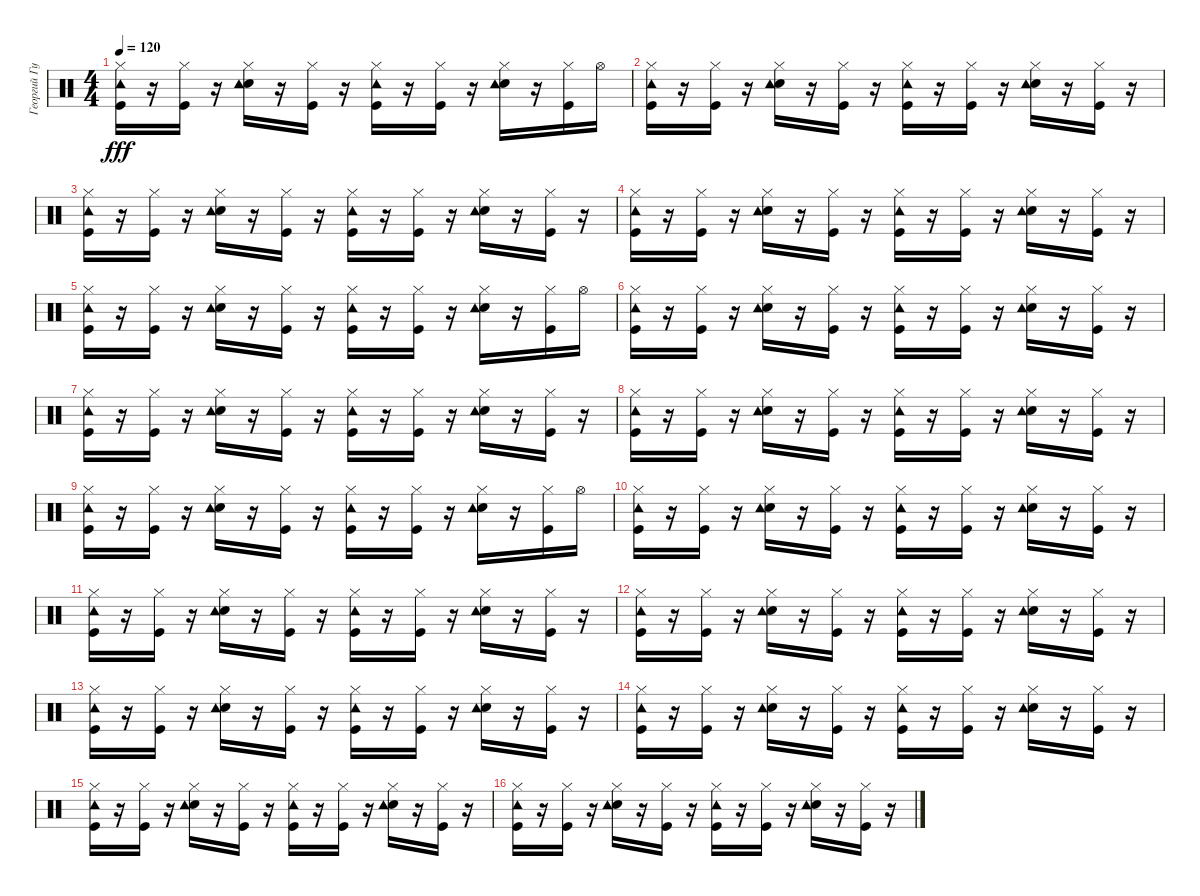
\track ("Георгий Гурьянов (ударные)" "Георгий Гу") {instrument percussion}
\staff {score}
\articulation defaults
\ts (4 4)
\tempo 120
\clef neutral
\ks c
("Kick (hit)" "Hi-Hat (closed)" "Tambourine (hit)").16{dy fff} r.16 ("Kick (hit)" "Hi-Hat (closed)").16 r.16 ("Snare (hit) 2" "Hi-Hat (closed)" "Tambourine (hit)").16 r.16 ("Kick (hit)" "Hi-Hat (closed)").16 r.16 ("Kick (hit)" "Hi-Hat (closed)" "Tambourine (hit)").16 r.16 ("Kick (hit)" "Hi-Hat (closed)").16 r.16 ("Snare (hit) 2" "Hi-Hat (closed)" "Tambourine (hit)").16 r.16 ("Kick (hit)" "Hi-Hat (closed)").16 "Hi-Hat (open)".16 |
("Kick (hit)" "Hi-Hat (closed)" "Tambourine (hit)").16 r.16 ("Kick (hit)" "Hi-Hat (closed)").16 r.16 ("Snare (hit) 2" "Hi-Hat (closed)" "Tambourine (hit)").16 r.16 ("Kick (hit)" "Hi-Hat (closed)").16 r.16 ("Kick (hit)" "Hi-Hat (closed)" "Tambourine (hit)").16 r.16 ("Kick (hit)" "Hi-Hat (closed)").16 r.16 ("Snare (hit) 2" "Hi-Hat (closed)" "Tambourine (hit)").16 r.16 ("Kick (hit)" "Hi-Hat (closed)").16 r.16 |
("Kick (hit)" "Hi-Hat (closed)" "Tambourine (hit)").16 r.16 ("Kick (hit)" "Hi-Hat (closed)").16 r.16 ("Snare (hit) 2" "Hi-Hat (closed)" "Tambourine (hit)").16 r.16 ("Kick (hit)" "Hi-Hat (closed)").16 r.16 ("Kick (hit)" "Hi-Hat (closed)" "Tambourine (hit)").16 r.16 ("Kick (hit)" "Hi-Hat (closed)").16 r.16 ("Snare (hit) 2" "Hi-Hat (closed)" "Tambourine (hit)").16 r.16 ("Kick (hit)" "Hi-Hat (closed)").16 r.16 |
("Kick (hit)" "Hi-Hat (closed)" "Tambourine (hit)").16 r.16 ("Kick (hit)" "Hi-Hat (closed)").16 r.16 ("Snare (hit) 2" "Hi-Hat (closed)" "Tambourine (hit)").16 r.16 ("Kick (hit)" "Hi-Hat (closed)").16 r.16 ("Kick (hit)" "Hi-Hat (closed)" "Tambourine (hit)").16 r.16 ("Kick (hit)" "Hi-Hat (closed)").16 r.16 ("Snare (hit) 2" "Hi-Hat (closed)" "Tambourine (hit)").16 r.16 ("Kick (hit)" "Hi-Hat (closed)").16 r.16 |
("Kick (hit)" "Hi-Hat (closed)" "Tambourine (hit)").16 r.16 ("Kick (hit)" "Hi-Hat (closed)").16 r.16 ("Snare (hit) 2" "Hi-Hat (closed)" "Tambourine (hit)").16 r.16 ("Kick (hit)" "Hi-Hat (closed)").16 r.16 ("Kick (hit)" "Hi-Hat (closed)" "Tambourine (hit)").16 r.16 ("Kick (hit)" "Hi-Hat (closed)").16 r.16 ("Snare (hit) 2" "Hi-Hat (closed)" "Tambourine (hit)").16 r.16 ("Kick (hit)" "Hi-Hat (closed)").16 "Hi-Hat (open)".16 |
("Kick (hit)" "Hi-Hat (closed)" "Tambourine (hit)").16 r.16 ("Kick (hit)" "Hi-Hat (closed)").16 r.16 ("Snare (hit) 2" "Hi-Hat (closed)" "Tambourine (hit)").16 r.16 ("Kick (hit)" "Hi-Hat (closed)").16 r.16 ("Kick (hit)" "Hi-Hat (closed)" "Tambourine (hit)").16 r.16 ("Kick (hit)" "Hi-Hat (closed)").16 r.16 ("Snare (hit) 2" "Hi-Hat (closed)" "Tambourine (hit)").16 r.16 ("Kick (hit)" "Hi-Hat (closed)").16 r.16 |
("Kick (hit)" "Hi-Hat (closed)" "Tambourine (hit)").16 r.16 ("Kick (hit)" "Hi-Hat (closed)").16 r.16 ("Snare (hit) 2" "Hi-Hat (closed)" "Tambourine (hit)").16 r.16 ("Kick (hit)" "Hi-Hat (closed)").16 r.16 ("Kick (hit)" "Hi-Hat (closed)" "Tambourine (hit)").16 r.16 ("Kick (hit)" "Hi-Hat (closed)").16 r.16 ("Snare (hit) 2" "Hi-Hat (closed)" "Tambourine (hit)").16 r.16 ("Kick (hit)" "Hi-Hat (closed)").16 r.16 |
("Kick (hit)" "Hi-Hat (closed)" "Tambourine (hit)").16 r.16 ("Kick (hit)" "Hi-Hat (closed)").16 r.16 ("Snare (hit) 2" "Hi-Hat (closed)" "Tambourine (hit)").16 r.16 ("Kick (hit)" "Hi-Hat (closed)").16 r.16 ("Kick (hit)" "Hi-Hat (closed)" "Tambourine (hit)").16 r.16 ("Kick (hit)" "Hi-Hat (closed)").16 r.16 ("Snare (hit) 2" "Hi-Hat (closed)" "Tambourine (hit)").16 r.16 ("Kick (hit)" "Hi-Hat (closed)").16 r.16 |
("Kick (hit)" "Hi-Hat (closed)" "Tambourine (hit)").16 r.16 ("Kick (hit)" "Hi-Hat (closed)").16 r.16 ("Snare (hit) 2" "Hi-Hat (closed)" "Tambourine (hit)").16 r.16 ("Kick (hit)" "Hi-Hat (closed)").16 r.16 ("Kick (hit)" "Hi-Hat (closed)" "Tambourine (hit)").16 r.16 ("Kick (hit)" "Hi-Hat (closed)").16 r.16 ("Snare (hit) 2" "Hi-Hat (closed)" "Tambourine (hit)").16 r.16 ("Kick (hit)" "Hi-Hat (closed)").16 "Hi-Hat (open)".16 |
("Kick (hit)" "Hi-Hat (closed)" "Tambourine (hit)").16 r.16 ("Kick (hit)" "Hi-Hat (closed)").16 r.16 ("Snare (hit) 2" "Hi-Hat (closed)" "Tambourine (hit)").16 r.16 ("Kick (hit)" "Hi-Hat (closed)").16 r.16 ("Kick (hit)" "Hi-Hat (closed)" "Tambourine (hit)").16 r.16 ("Kick (hit)" "Hi-Hat (closed)").16 r.16 ("Snare (hit) 2" "Hi-Hat (closed)" "Tambourine (hit)").16 r.16 ("Kick (hit)" "Hi-Hat (closed)").16 r.16 |
("Kick (hit)" "Hi-Hat (closed)" "Tambourine (hit)").16 r.16 ("Kick (hit)" "Hi-Hat (closed)").16 r.16 ("Snare (hit) 2" "Hi-Hat (closed)" "Tambourine (hit)").16 r.16 ("Kick (hit)" "Hi-Hat (closed)").16 r.16 ("Kick (hit)" "Hi-Hat (closed)" "Tambourine (hit)").16 r.16 ("Kick (hit)" "Hi-Hat (closed)").16 r.16 ("Snare (hit) 2" "Hi-Hat (closed)" "Tambourine (hit)").16 r.16 ("Kick (hit)" "Hi-Hat (closed)").16 r.16 |
("Kick (hit)" "Hi-Hat (closed)" "Tambourine (hit)").16 r.16 ("Kick (hit)" "Hi-Hat (closed)").16 r.16 ("Snare (hit) 2" "Hi-Hat (closed)" "Tambourine (hit)").16 r.16 ("Kick (hit)" "Hi-Hat (closed)").16 r.16 ("Kick (hit)" "Hi-Hat (closed)" "Tambourine (hit)").16 r.16 ("Kick (hit)" "Hi-Hat (closed)").16 r.16 ("Snare (hit) 2" "Hi-Hat (closed)" "Tambourine (hit)").16 r.16 ("Kick (hit)" "Hi-Hat (closed)").16 r.16 |
("Kick (hit)" "Hi-Hat (closed)" "Tambourine (hit)").16 r.16 ("Kick (hit)" "Hi-Hat (closed)").16 r.16 ("Snare (hit) 2" "Hi-Hat (closed)" "Tambourine (hit)").16 r.16 ("Kick (hit)" "Hi-Hat (closed)").16 r.16 ("Kick (hit)" "Hi-Hat (closed)" "Tambourine (hit)").16 r.16 ("Kick (hit)" "Hi-Hat (closed)").16 r.16 ("Snare (hit) 2" "Hi-Hat (closed)" "Tambourine (hit)").16 r.16 ("Kick (hit)" "Hi-Hat (closed)").16 r.16 |
("Kick (hit)" "Hi-Hat (closed)" "Tambourine (hit)").16 r.16 ("Kick (hit)" "Hi-Hat (closed)").16 r.16 ("Snare (hit) 2" "Hi-Hat (closed)" "Tambourine (hit)").16 r.16 ("Kick (hit)" "Hi-Hat (closed)").16 r.16 ("Kick (hit)" "Hi-Hat (closed)" "Tambourine (hit)").16 r.16 ("Kick (hit)" "Hi-Hat (closed)").16 r.16 ("Snare (hit) 2" "Hi-Hat (closed)" "Tambourine (hit)").16 r.16 ("Kick (hit)" "Hi-Hat (closed)").16 r.16 |
("Kick (hit)" "Hi-Hat (closed)" "Tambourine (hit)").16 r.16 ("Kick (hit)" "Hi-Hat (closed)").16 r.16 ("Snare (hit) 2" "Hi-Hat (closed)" "Tambourine (hit)").16 r.16 ("Kick (hit)" "Hi-Hat (closed)").16 r.16 ("Kick (hit)" "Hi-Hat (closed)" "Tambourine (hit)").16 r.16 ("Kick (hit)" "Hi-Hat (closed)").16 r.16 ("Snare (hit) 2" "Hi-Hat (closed)" "Tambourine (hit)").16 r.16 ("Kick (hit)" "Hi-Hat (closed)").16 r.16 |
("Kick (hit)" "Hi-Hat (closed)" "Tambourine (hit)").16 r.16 ("Kick (hit)" "Hi-Hat (closed)").16 r.16 ("Snare (hit) 2" "Hi-Hat (closed)" "Tambourine (hit)").16 r.16 ("Kick (hit)" "Hi-Hat (closed)").16 r.16 ("Kick (hit)" "Hi-Hat (closed)" "Tambourine (hit)").16 r.16 ("Kick (hit)" "Hi-Hat (closed)").16 r.16 ("Snare (hit) 2" "Hi-Hat (closed)" "Tambourine (hit)").16 r.16 ("Kick (hit)" "Hi-Hat (closed)").16 r.16
